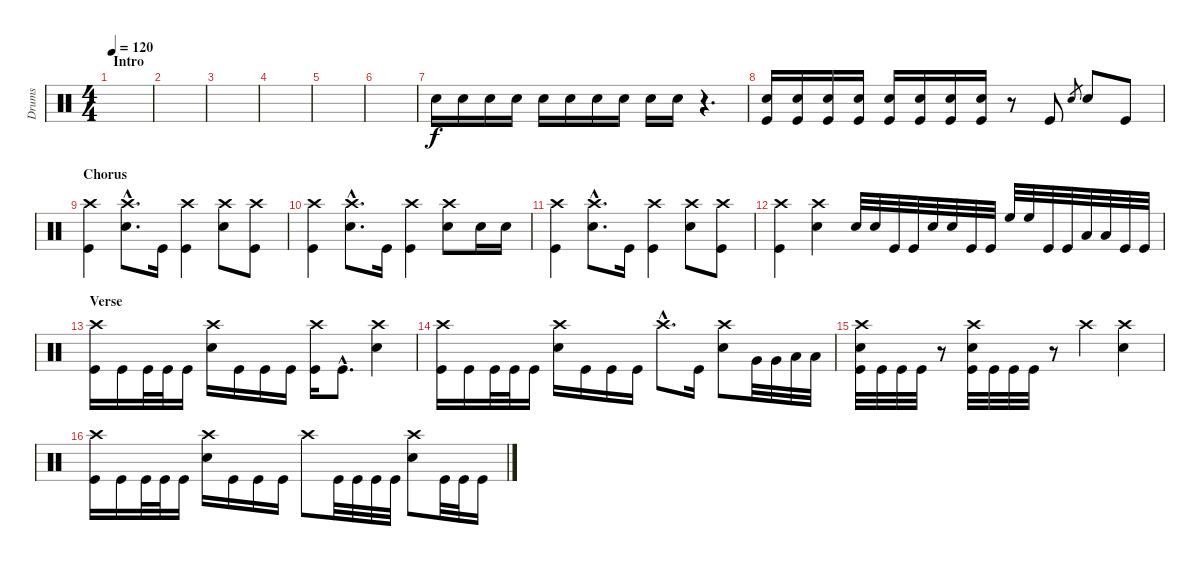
\track ("Drums" "Drums") {instrument percussion}
\staff {score}
\articulation defaults
\ts (4 4)
\section ("" "Intro")
\tempo 120
\clef neutral
\ks c
|
|
|
|
|
|
"Electric Snare (hit)".16 "Electric Snare (hit)".16 "Electric Snare (hit)".16 "Electric Snare (hit)".16 "Electric Snare (hit)".16 "Electric Snare (hit)".16 "Electric Snare (hit)".16 "Electric Snare (hit)".16 "Electric Snare (hit)".16 "Electric Snare (hit)".16 r.4{d} |
("Electric Snare (hit)" "Kick (hit)").16 ("Electric Snare (hit)" "Kick (hit)").16 ("Electric Snare (hit)" "Kick (hit)").16 ("Electric Snare (hit)" "Kick (hit)").16 ("Electric Snare (hit)" "Kick (hit)").16 ("Electric Snare (hit)" "Kick (hit)").16 ("Electric Snare (hit)" "Kick (hit)").16 ("Electric Snare (hit)" "Kick (hit)").16 r.8 "Kick (hit)".8 "Electric Snare (hit)".8{gr} "Electric Snare (hit)".8 "Kick (hit)".8 |
\section ("" "Chorus")
("Crash high (hit)" "Kick (hit)").4 ("Crash high (hit)"{hac} "Electric Snare (hit)"{hac}).8{d} "Kick (hit)".16 ("Crash high (hit)" "Kick (hit)").4 ("Crash high (hit)" "Electric Snare (hit)").8 ("Crash high (hit)" "Kick (hit)").8 |
("Crash high (hit)" "Kick (hit)").4 ("Crash high (hit)"{hac} "Electric Snare (hit)"{hac}).8{d} "Kick (hit)".16 ("Crash high (hit)" "Kick (hit)").4 ("Crash high (hit)" "Electric Snare (hit)").8 "Electric Snare (hit)".16 "Electric Snare (hit)".16 |
("Crash high (hit)" "Kick (hit)").4 ("Crash high (hit)"{hac} "Electric Snare (hit)"{hac}).8{d} "Kick (hit)".16 ("Crash high (hit)" "Kick (hit)").4 ("Crash high (hit)" "Electric Snare (hit)").8 ("Crash high (hit)" "Kick (hit)").8 |
("Crash high (hit)" "Kick (hit)").4 ("Crash high (hit)" "Electric Snare (hit)").4 "Electric Snare (hit)".32 "Electric Snare (hit)".32 "Kick (hit)".32 "Kick (hit)".32 "Electric Snare (hit)".32 "Electric Snare (hit)".32 "Kick (hit)".32 "Kick (hit)".32 "High Floor Tom (hit)".32 "High Floor Tom (hit)".32 "Kick (hit)".32 "Kick (hit)".32 "Low Tom (hit)".32 "Low Tom (hit)".32 "Kick (hit)".32 "Kick (hit)".32 |
\section ("" "Verse")
("Crash high (hit)" "Kick (hit)").16 "Kick (hit)".16 "Kick (hit)".32 "Kick (hit)".32 "Kick (hit)".16 ("Crash high (hit)" "Electric Snare (hit)").16 "Kick (hit)".16 "Kick (hit)".16 "Kick (hit)".16 ("Crash high (hit)" "Kick (hit)").16 "Kick (hit)"{hac}.8{d} ("Crash high (hit)" "Electric Snare (hit)").4 |
("Crash high (hit)" "Kick (hit)").16 "Kick (hit)".16 "Kick (hit)".32 "Kick (hit)".32 "Kick (hit)".16 ("Crash high (hit)" "Electric Snare (hit)").16 "Kick (hit)".16 "Kick (hit)".16 "Kick (hit)".16 "Crash high (hit)"{hac}.8{d} "Kick (hit)".16 ("Crash high (hit)" "Electric Snare (hit)").8 "Very Low Tom (hit)".32 "Very Low Tom (hit)".32 "Low Floor Tom (hit)".32 "Low Floor Tom (hit)".32 |
("Crash high (hit)" "Electric Snare (hit)" "Kick (hit)").32 "Kick (hit)".32 "Kick (hit)".32 "Kick (hit)".32 r.8 ("Crash high (hit)" "Electric Snare (hit)" "Kick (hit)").32 "Kick (hit)".32 "Kick (hit)".32 "Kick (hit)".32 r.8 "Crash high (hit)".4 ("Crash high (hit)" "Electric Snare (hit)").4 |
("Crash high (hit)" "Kick (hit)").16 "Kick (hit)".16 "Kick (hit)".32 "Kick (hit)".32 "Kick (hit)".16 ("Crash high (hit)" "Electric Snare (hit)").16 "Kick (hit)".16 "Kick (hit)".16 "Kick (hit)".16 "Crash high (hit)".8 "Kick (hit)".32 "Kick (hit)".32 "Kick (hit)".32 "Kick (hit)".32 ("Crash high (hit)" "Electric Snare (hit)").8 "Kick (hit)".32 "Kick (hit)".32 "Kick (hit)".16
